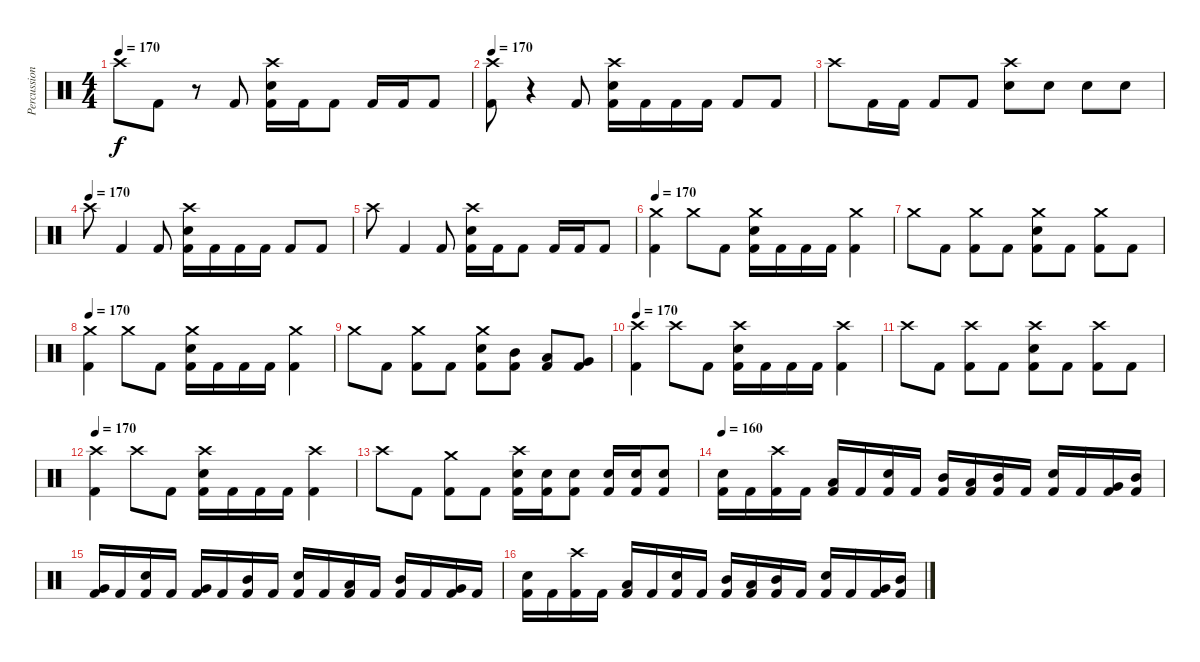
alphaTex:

\track ("Percussion" "Percussion") {instrument percussion}
\staff {score}
\articulation defaults
\ts (4 4)
\tempo 170
\clef neutral
\ks c "Crash high (hit)".8{dy f} "Kick (hit) 2".8
r.8 "Kick (hit) 2".8 ("Crash high (hit)" "Electric Snare (hit)" "Kick (hit) 2").16 "Kick (hit) 2".16 "Kick (hit) 2".8 "Kick (hit) 2".16 "Kick (hit) 2".16 "Kick (hit) 2".8 |
\tempo 170
("Crash high (hit)" "Kick (hit) 2").8 r.4 "Kick (hit) 2".8 ("Crash high (hit)" "Electric Snare (hit)" "Kick (hit) 2").16 "Kick (hit) 2".16 "Kick (hit) 2".16 "Kick (hit) 2".16 "Kick (hit) 2".8 "Kick (hit) 2".8 |
"Crash high (hit)".8 "Kick (hit) 2".16 "Kick (hit) 2".16 "Kick (hit) 2".8 "Kick (hit) 2".8 ("Crash high (hit)" "Electric Snare (hit)").8 "Electric Snare (hit)".8 "Electric Snare (hit)".8 "Electric Snare (hit)".8 |
\tempo (170)
"Crash high (hit)".8 "Kick (hit) 2".4 "Kick (hit) 2".8 ("Crash high (hit)" "Electric Snare (hit)" "Kick (hit) 2").16 "Kick (hit) 2".16 "Kick (hit) 2".16 "Kick (hit) 2".16 "Kick (hit) 2".8 "Kick (hit) 2".8 |
"Crash high (hit)".8 "Kick (hit) 2".4 "Kick (hit) 2".8 ("Crash high (hit)" "Electric Snare (hit)" "Kick (hit) 2").16 "Kick (hit) 2".16 "Kick (hit) 2".8 "Kick (hit) 2".16 "Kick (hit) 2".16 "Kick (hit) 2".8 |
\tempo 170
("Crash medium (hit)" "Kick (hit) 2").4 "Crash medium (hit)".8 "Kick (hit) 2".8 ("Crash medium (hit)" "Electric Snare (hit)" "Kick (hit) 2").16 "Kick (hit) 2".16 "Kick (hit) 2".16 "Kick (hit) 2".16 ("Crash medium (hit)" "Kick (hit) 2").4 |
"Crash medium (hit)".8 "Kick (hit) 2".8 ("Crash medium (hit)" "Kick (hit) 2").8 "Kick (hit) 2".8 ("Crash medium (hit)" "Electric Snare (hit)" "Kick (hit) 2").8 "Kick (hit) 2".8 ("Crash medium (hit)" "Kick (hit) 2").8 "Kick (hit) 2".8 |
\tempo 170
("Crash medium (hit)" "Kick (hit) 2").4 "Crash medium (hit)".8 "Kick (hit) 2".8 ("Crash medium (hit)" "Electric Snare (hit)" "Kick (hit) 2").16 "Kick (hit) 2".16 "Kick (hit) 2".16 "Kick (hit) 2".16 ("Crash medium (hit)" "Kick (hit) 2").4 |
"Crash medium (hit)".8 "Kick (hit) 2".8 ("Crash medium (hit)" "Kick (hit) 2").8 "Kick (hit) 2".8 ("Crash medium (hit)" "Electric Snare (hit)" "Kick (hit) 2").8 ("Mid Tom (hit)" "Kick (hit) 2").8 ("Low Tom (hit)" "Kick (hit) 2").8 ("Very Low Tom (hit)" "Kick (hit) 2").8 |
\tempo 170
("Crash high (hit)" "Kick (hit) 2").4 "Crash high (hit)".8 "Kick (hit) 2".8 ("Crash high (hit)" "Electric Snare (hit)" "Kick (hit) 2").16 "Kick (hit) 2".16 "Kick (hit) 2".16 "Kick (hit) 2".16 ("Crash high (hit)" "Kick (hit) 2").4 |
"Crash high (hit)".8 "Kick (hit) 2".8 ("Crash high (hit)" "Kick (hit) 2").8 "Kick (hit) 2".8 ("Crash high (hit)" "Electric Snare (hit)" "Kick (hit) 2").8 "Kick (hit) 2".8 ("Crash high (hit)" "Kick (hit) 2").8 "Kick (hit) 2".8 |
\tempo 170
("Crash high (hit)" "Kick (hit) 2").4 "Crash high (hit)".8 "Kick (hit) 2".8 ("Crash high (hit)" "Electric Snare (hit)" "Kick (hit) 2").16 "Kick (hit) 2".16 "Kick (hit) 2".16 "Kick (hit) 2".16 ("Crash high (hit)" "Kick (hit) 2").4 |
"Crash high (hit)".8 "Kick (hit) 2".8 ("Crash medium (hit)" "Kick (hit) 2").8 "Kick (hit) 2".8 ("Crash high (hit)" "Electric Snare (hit)" "Kick (hit) 2").16 ("Electric Snare (hit)" "Kick (hit) 2").16 ("Electric Snare (hit)" "Kick (hit) 2").8 ("Electric Snare (hit)" "Kick (hit) 2").16 ("Electric Snare (hit)" "Kick (hit) 2").16 ("Electric Snare (hit)" "Kick (hit) 2").8 |
\tempo 160
("Electric Snare (hit)" "Kick (hit) 2").16 "Kick (hit) 2".16 ("Crash high (hit)" "Kick (hit) 2").16 "Kick (hit) 2".16 ("Low Tom (hit)" "Kick (hit) 2").16 "Kick (hit) 2".16 ("Electric Snare (hit)" "Kick (hit) 2").16 "Kick (hit) 2".16 ("Mid Tom (hit)" "Kick (hit) 2").16 ("Low Tom (hit)" "Kick (hit) 2").16 ("Mid Tom (hit)" "Kick (hit) 2").16 "Kick (hit) 2".16 ("Electric Snare (hit)" "Kick (hit) 2").16 "Kick (hit) 2".16 ("Very Low Tom (hit)" "Kick (hit) 2").16 ("Mid Tom (hit)" "Kick (hit) 2").16 |
("Very Low Tom (hit)" "Kick (hit) 2").16 "Kick (hit) 2".16 ("Electric Snare (hit)" "Kick (hit) 2").16 "Kick (hit) 2".16 ("Very Low Tom (hit)" "Kick (hit) 2").16 "Kick (hit) 2".16 ("Mid Tom (hit)" "Kick (hit) 2").16 "Kick (hit) 2".16 ("Electric Snare (hit)" "Kick (hit) 2").16 "Kick (hit) 2".16 ("Low Tom (hit)" "Kick (hit) 2").16 "Kick (hit) 2".16 ("Mid Tom (hit)" "Kick (hit) 2").16 "Kick (hit) 2".16 ("Very Low Tom (hit)" "Kick (hit) 2").16 "Kick (hit) 2".16 |
("Electric Snare (hit)" "Kick (hit) 2").16 "Kick (hit) 2".16 ("Crash high (hit)" "Kick (hit) 2").16 "Kick (hit) 2".16 ("Low Tom (hit)" "Kick (hit) 2").16 "Kick (hit) 2".16 ("Electric Snare (hit)" "Kick (hit) 2").16 "Kick (hit) 2".16 ("Mid Tom (hit)" "Kick (hit) 2").16 ("Low Tom (hit)" "Kick (hit) 2").16 ("Mid Tom (hit)" "Kick (hit) 2").16 "Kick (hit) 2".16 ("Electric Snare (hit)" "Kick (hit) 2").16 "Kick (hit) 2".16 ("Very Low Tom (hit)" "Kick (hit) 2").16 ("Mid Tom (hit)" "Kick (hit) 2").16
